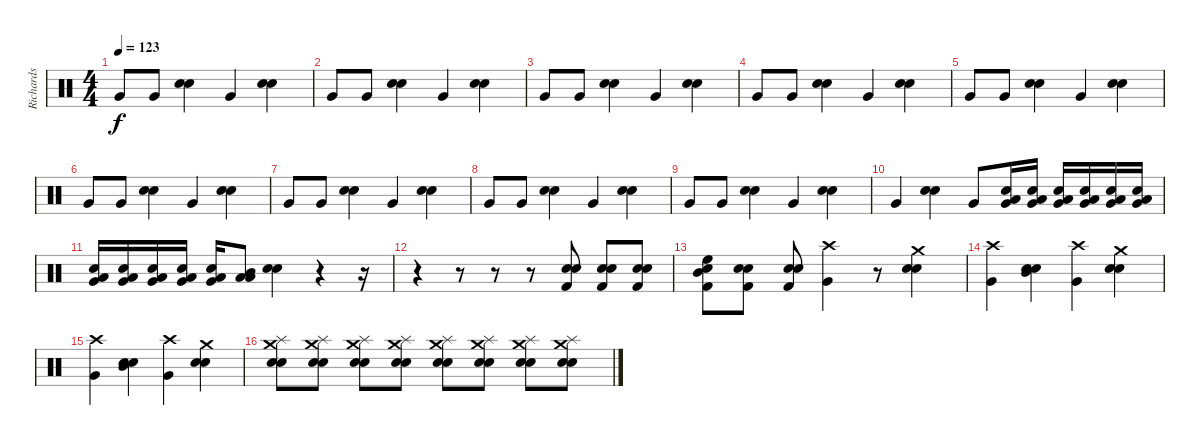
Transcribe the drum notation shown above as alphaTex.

\track ("Richards" "Richards") {instrument percussion}
\staff {score}
\articulation defaults
\ts (4 4)
\tempo 123
\clef neutral
\ks c "Very Low Tom (hit)".8{dy f} "Very Low Tom (hit)".8
("Snare (hit) 2" "Electric Snare (hit)").4 "Very Low Tom (hit)".4 ("Snare (hit) 2" "Electric Snare (hit)").4 |
"Very Low Tom (hit)".8 "Very Low Tom (hit)".8 ("Snare (hit) 2" "Electric Snare (hit)").4 "Very Low Tom (hit)".4 ("Snare (hit) 2" "Electric Snare (hit)").4 |
"Very Low Tom (hit)".8 "Very Low Tom (hit)".8 ("Snare (hit) 2" "Electric Snare (hit)").4 "Very Low Tom (hit)".4 ("Snare (hit) 2" "Electric Snare (hit)").4 |
"Very Low Tom (hit)".8 "Very Low Tom (hit)".8 ("Snare (hit) 2" "Electric Snare (hit)").4 "Very Low Tom (hit)".4 ("Snare (hit) 2" "Electric Snare (hit)").4 |
"Very Low Tom (hit)".8 "Very Low Tom (hit)".8 ("Snare (hit) 2" "Electric Snare (hit)").4 "Very Low Tom (hit)".4 ("Snare (hit) 2" "Electric Snare (hit)").4 |
"Very Low Tom (hit)".8 "Very Low Tom (hit)".8 ("Snare (hit) 2" "Electric Snare (hit)").4 "Very Low Tom (hit)".4 ("Snare (hit) 2" "Electric Snare (hit)").4 |
"Very Low Tom (hit)".8 "Very Low Tom (hit)".8 ("Snare (hit) 2" "Electric Snare (hit)").4 "Very Low Tom (hit)".4 ("Snare (hit) 2" "Electric Snare (hit)").4 |
"Very Low Tom (hit)".8 "Very Low Tom (hit)".8 ("Snare (hit) 2" "Electric Snare (hit)").4 "Very Low Tom (hit)".4 ("Snare (hit) 2" "Electric Snare (hit)").4 |
"Very Low Tom (hit)".8 "Very Low Tom (hit)".8 ("Snare (hit) 2" "Electric Snare (hit)").4 "Very Low Tom (hit)".4 ("Snare (hit) 2" "Electric Snare (hit)").4 |
"Very Low Tom (hit)".4 ("Snare (hit) 2" "Electric Snare (hit)").4 "Very Low Tom (hit)".8 ("Electric Snare (hit)" "Very Low Tom (hit)" "Low Floor Tom (hit)").16 ("Electric Snare (hit)" "Very Low Tom (hit)" "Low Floor Tom (hit)").16 ("Electric Snare (hit)" "Very Low Tom (hit)" "Low Floor Tom (hit)").16 ("Electric Snare (hit)" "Very Low Tom (hit)" "Low Floor Tom (hit)").16 ("Electric Snare (hit)" "Very Low Tom (hit)" "Low Floor Tom (hit)").16 ("Electric Snare (hit)" "Very Low Tom (hit)" "Low Floor Tom (hit)").16 |
("Electric Snare (hit)" "Very Low Tom (hit)" "Low Floor Tom (hit)").16 ("Electric Snare (hit)" "Very Low Tom (hit)" "Low Floor Tom (hit)").16 ("Electric Snare (hit)" "Very Low Tom (hit)" "Low Floor Tom (hit)").16 ("Electric Snare (hit)" "Very Low Tom (hit)" "Low Floor Tom (hit)").16 ("Electric Snare (hit)" "Very Low Tom (hit)" "Low Floor Tom (hit)").16 ("Low Tom (hit)" "Mid Tom (hit)" "Low Floor Tom (hit)").8 ("Snare (hit) 2" "Electric Snare (hit)").4 r.4 r.16 |
r.4 r.8 r.8 r.8 ("Snare (hit) 2" "Electric Snare (hit)" "Kick (hit) 2").8 ("Snare (hit) 2" "Electric Snare (hit)" "Kick (hit) 2").8 ("Snare (hit) 2" "Electric Snare (hit)" "Kick (hit) 2").8 |
("Mid Tom (hit)" "High Floor Tom (hit)" "Electric Snare (hit)" "Kick (hit) 2").8 ("Snare (hit) 2" "Electric Snare (hit)" "Kick (hit) 2").8 ("Snare (hit) 2" "Electric Snare (hit)" "Kick (hit) 2").8 ("Crash high (hit)" "Very Low Tom (hit)").4 r.8 ("Crash medium (hit)" "Snare (hit) 2" "Electric Snare (hit)").4 |
("Crash high (hit)" "Very Low Tom (hit)").4 ("Mid Tom (hit)" "Snare (hit) 2" "Electric Snare (hit)").4 ("Crash high (hit)" "Very Low Tom (hit)").4 ("Crash medium (hit)" "Snare (hit) 2" "Electric Snare (hit)").4 |
("Crash high (hit)" "Very Low Tom (hit)").4 ("Mid Tom (hit)" "Snare (hit) 2" "Electric Snare (hit)").4 ("Crash high (hit)" "Very Low Tom (hit)").4 ("Crash medium (hit)" "Snare (hit) 2" "Electric Snare (hit)").4 |
("Splash (hit)" "Crash medium (hit)" "Snare (hit) 2" "Electric Snare (hit)").8 ("Splash (hit)" "Crash medium (hit)" "Snare (hit) 2" "Electric Snare (hit)").8 ("Splash (hit)" "Crash medium (hit)" "Snare (hit) 2" "Electric Snare (hit)").8 ("Splash (hit)" "Crash medium (hit)" "Snare (hit) 2" "Electric Snare (hit)").8 ("Splash (hit)" "Crash medium (hit)" "Snare (hit) 2" "Electric Snare (hit)").8 ("Splash (hit)" "Crash medium (hit)" "Snare (hit) 2" "Electric Snare (hit)").8 ("Splash (hit)" "Crash medium (hit)" "Snare (hit) 2" "Electric Snare (hit)").8 ("Splash (hit)" "Crash medium (hit)" "Snare (hit) 2" "Electric Snare (hit)").8
